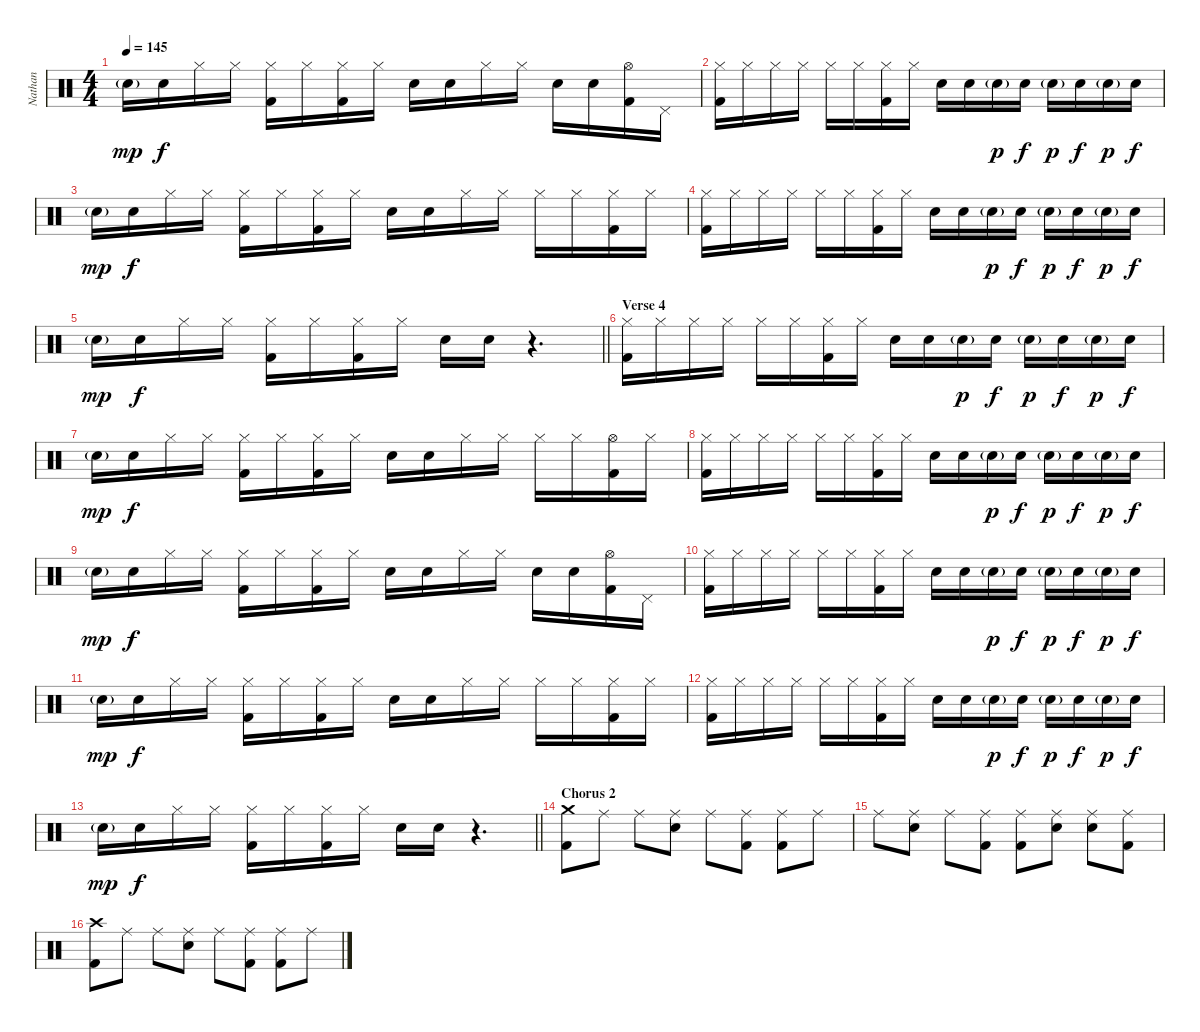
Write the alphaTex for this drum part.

\track ("Nathan" "Nathan") {instrument percussion}
\staff {score}
\articulation defaults
\ts (4 4)
\tempo 145
\clef neutral
\ks c "Electric Snare (hit)"{g}.16{dy mp} "Electric Snare (hit)".16{dy f} "Hi-Hat (closed)".16 "Hi-Hat (closed)".16
("Hi-Hat (closed)" "Kick (hit) 2").16 "Hi-Hat (closed)".16 ("Hi-Hat (closed)" "Kick (hit) 2").16 "Hi-Hat (closed)".16 "Electric Snare (hit)".16 "Electric Snare (hit)".16 "Hi-Hat (closed)".16 "Hi-Hat (closed)".16 "Electric Snare (hit)".16 "Electric Snare (hit)".16 ("Hi-Hat (open)" "Kick (hit) 2").16 "Pedal Hi-Hat (hit)".16 |
("Hi-Hat (closed)" "Kick (hit) 2").16 "Hi-Hat (closed)".16 "Hi-Hat (closed)".16 "Hi-Hat (closed)".16 "Hi-Hat (closed)".16 "Hi-Hat (closed)".16 ("Hi-Hat (closed)" "Kick (hit) 2").16 "Hi-Hat (closed)".16 "Electric Snare (hit)".16 "Electric Snare (hit)".16 "Electric Snare (hit)"{g}.16{dy p} "Electric Snare (hit)".16{dy f} "Electric Snare (hit)"{g}.16{dy p} "Electric Snare (hit)".16{dy f} "Electric Snare (hit)"{g}.16{dy p} "Electric Snare (hit)".16{dy f} |
"Electric Snare (hit)"{g}.16{dy mp} "Electric Snare (hit)".16{dy f} "Hi-Hat (closed)".16 "Hi-Hat (closed)".16 ("Hi-Hat (closed)" "Kick (hit) 2").16 "Hi-Hat (closed)".16 ("Hi-Hat (closed)" "Kick (hit) 2").16 "Hi-Hat (closed)".16 "Electric Snare (hit)".16 "Electric Snare (hit)".16 "Hi-Hat (closed)".16 "Hi-Hat (closed)".16 "Hi-Hat (closed)".16 "Hi-Hat (closed)".16 ("Hi-Hat (closed)" "Kick (hit) 2").16 "Hi-Hat (closed)".16 |
("Hi-Hat (closed)" "Kick (hit) 2").16 "Hi-Hat (closed)".16 "Hi-Hat (closed)".16 "Hi-Hat (closed)".16 "Hi-Hat (closed)".16 "Hi-Hat (closed)".16 ("Hi-Hat (closed)" "Kick (hit) 2").16 "Hi-Hat (closed)".16 "Electric Snare (hit)".16 "Electric Snare (hit)".16 "Electric Snare (hit)"{g}.16{dy p} "Electric Snare (hit)".16{dy f} "Electric Snare (hit)"{g}.16{dy p} "Electric Snare (hit)".16{dy f} "Electric Snare (hit)"{g}.16{dy p} "Electric Snare (hit)".16{dy f} |
\barLineRight lightlight "Electric Snare (hit)"{g}.16{dy mp} "Electric Snare (hit)".16{dy f} "Hi-Hat (closed)".16 "Hi-Hat (closed)".16
("Hi-Hat (closed)" "Kick (hit) 2").16 "Hi-Hat (closed)".16 ("Hi-Hat (closed)" "Kick (hit) 2").16 "Hi-Hat (closed)".16 "Electric Snare (hit)".16 "Electric Snare (hit)".16 r.4{d} |
\section ("" "Verse 4")
("Hi-Hat (closed)" "Kick (hit) 2").16 "Hi-Hat (closed)".16 "Hi-Hat (closed)".16 "Hi-Hat (closed)".16 "Hi-Hat (closed)".16 "Hi-Hat (closed)".16 ("Hi-Hat (closed)" "Kick (hit) 2").16 "Hi-Hat (closed)".16 "Electric Snare (hit)".16 "Electric Snare (hit)".16 "Electric Snare (hit)"{g}.16{dy p} "Electric Snare (hit)".16{dy f} "Electric Snare (hit)"{g}.16{dy p} "Electric Snare (hit)".16{dy f} "Electric Snare (hit)"{g}.16{dy p} "Electric Snare (hit)".16{dy f} |
"Electric Snare (hit)"{g}.16{dy mp} "Electric Snare (hit)".16{dy f} "Hi-Hat (closed)".16 "Hi-Hat (closed)".16 ("Hi-Hat (closed)" "Kick (hit) 2").16 "Hi-Hat (closed)".16 ("Hi-Hat (closed)" "Kick (hit) 2").16 "Hi-Hat (closed)".16 "Electric Snare (hit)".16 "Electric Snare (hit)".16 "Hi-Hat (closed)".16 "Hi-Hat (closed)".16 "Hi-Hat (closed)".16 "Hi-Hat (closed)".16 ("Hi-Hat (open)" "Kick (hit) 2").16 "Hi-Hat (closed)".16 |
("Hi-Hat (closed)" "Kick (hit) 2").16 "Hi-Hat (closed)".16 "Hi-Hat (closed)".16 "Hi-Hat (closed)".16 "Hi-Hat (closed)".16 "Hi-Hat (closed)".16 ("Hi-Hat (closed)" "Kick (hit) 2").16 "Hi-Hat (closed)".16 "Electric Snare (hit)".16 "Electric Snare (hit)".16 "Electric Snare (hit)"{g}.16{dy p} "Electric Snare (hit)".16{dy f} "Electric Snare (hit)"{g}.16{dy p} "Electric Snare (hit)".16{dy f} "Electric Snare (hit)"{g}.16{dy p} "Electric Snare (hit)".16{dy f} |
"Electric Snare (hit)"{g}.16{dy mp} "Electric Snare (hit)".16{dy f} "Hi-Hat (closed)".16 "Hi-Hat (closed)".16 ("Hi-Hat (closed)" "Kick (hit) 2").16 "Hi-Hat (closed)".16 ("Hi-Hat (closed)" "Kick (hit) 2").16 "Hi-Hat (closed)".16 "Electric Snare (hit)".16 "Electric Snare (hit)".16 "Hi-Hat (closed)".16 "Hi-Hat (closed)".16 "Electric Snare (hit)".16 "Electric Snare (hit)".16 ("Hi-Hat (open)" "Kick (hit) 2").16 "Pedal Hi-Hat (hit)".16 |
("Hi-Hat (closed)" "Kick (hit) 2").16 "Hi-Hat (closed)".16 "Hi-Hat (closed)".16 "Hi-Hat (closed)".16 "Hi-Hat (closed)".16 "Hi-Hat (closed)".16 ("Hi-Hat (closed)" "Kick (hit) 2").16 "Hi-Hat (closed)".16 "Electric Snare (hit)".16 "Electric Snare (hit)".16 "Electric Snare (hit)"{g}.16{dy p} "Electric Snare (hit)".16{dy f} "Electric Snare (hit)"{g}.16{dy p} "Electric Snare (hit)".16{dy f} "Electric Snare (hit)"{g}.16{dy p} "Electric Snare (hit)".16{dy f} |
"Electric Snare (hit)"{g}.16{dy mp} "Electric Snare (hit)".16{dy f} "Hi-Hat (closed)".16 "Hi-Hat (closed)".16 ("Hi-Hat (closed)" "Kick (hit) 2").16 "Hi-Hat (closed)".16 ("Hi-Hat (closed)" "Kick (hit) 2").16 "Hi-Hat (closed)".16 "Electric Snare (hit)".16 "Electric Snare (hit)".16 "Hi-Hat (closed)".16 "Hi-Hat (closed)".16 "Hi-Hat (closed)".16 "Hi-Hat (closed)".16 ("Hi-Hat (closed)" "Kick (hit) 2").16 "Hi-Hat (closed)".16 |
("Hi-Hat (closed)" "Kick (hit) 2").16 "Hi-Hat (closed)".16 "Hi-Hat (closed)".16 "Hi-Hat (closed)".16 "Hi-Hat (closed)".16 "Hi-Hat (closed)".16 ("Hi-Hat (closed)" "Kick (hit) 2").16 "Hi-Hat (closed)".16 "Electric Snare (hit)".16 "Electric Snare (hit)".16 "Electric Snare (hit)"{g}.16{dy p} "Electric Snare (hit)".16{dy f} "Electric Snare (hit)"{g}.16{dy p} "Electric Snare (hit)".16{dy f} "Electric Snare (hit)"{g}.16{dy p} "Electric Snare (hit)".16{dy f} |
\barLineRight lightlight "Electric Snare (hit)"{g}.16{dy mp} "Electric Snare (hit)".16{dy f} "Hi-Hat (closed)".16 "Hi-Hat (closed)".16
("Hi-Hat (closed)" "Kick (hit) 2").16 "Hi-Hat (closed)".16 ("Hi-Hat (closed)" "Kick (hit) 2").16 "Hi-Hat (closed)".16 "Electric Snare (hit)".16 "Electric Snare (hit)".16 r.4{d} |
\section ("" "Chorus 2")
("Crash medium (hit)" "Kick (hit) 2").8 "Ride (middle)".8 "Ride (middle)".8 ("Ride (middle)" "Electric Snare (hit)").8 "Ride (middle)".8 ("Ride (middle)" "Kick (hit) 2").8 ("Ride (middle)" "Kick (hit) 2").8 "Ride (middle)".8 |
"Ride (middle)".8 ("Ride (middle)" "Electric Snare (hit)").8 "Ride (middle)".8 ("Ride (middle)" "Kick (hit) 2").8 ("Ride (middle)" "Kick (hit) 2").8 ("Ride (middle)" "Electric Snare (hit)").8 ("Ride (middle)" "Electric Snare (hit)").8 ("Ride (middle)" "Kick (hit) 2").8 |
("Crash high (hit)" "Kick (hit) 2").8 "Ride (middle)".8 "Ride (middle)".8 ("Ride (middle)" "Electric Snare (hit)").8 "Ride (middle)".8 ("Ride (middle)" "Kick (hit) 2").8 ("Ride (middle)" "Kick (hit) 2").8 "Ride (middle)".8
